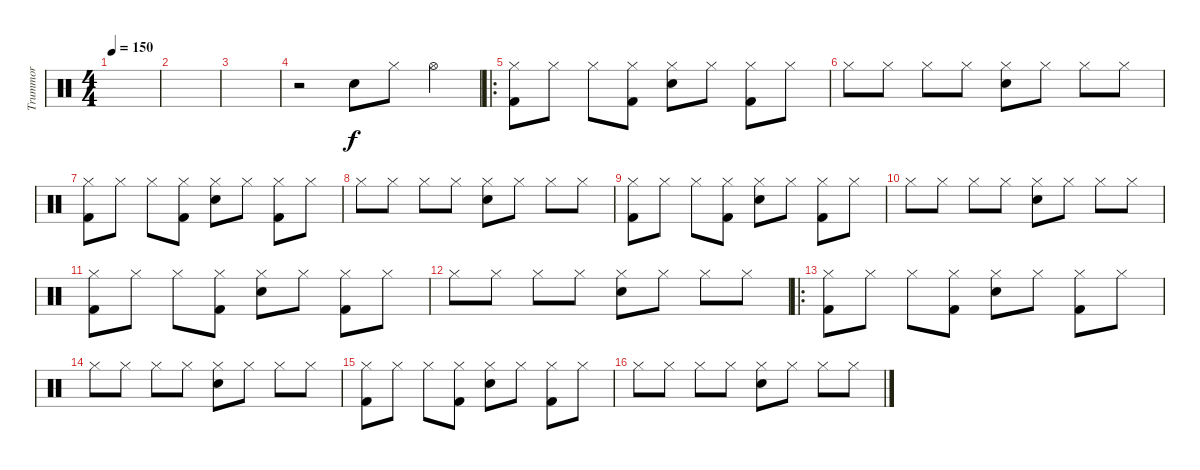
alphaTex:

\track ("Trummor" "Trummor") {instrument percussion}
\staff {score}
\articulation defaults
\ts (4 4)
\tempo 150
\clef neutral
\ks c
|
|
|
r.2 "Snare (hit) 2".8 "Hi-Hat (closed)".8 "Hi-Hat (open)".4 |
\ro
("Hi-Hat (closed)" "Kick (hit) 2").8 "Hi-Hat (closed)".8 "Hi-Hat (closed)".8 ("Hi-Hat (closed)" "Kick (hit) 2").8 ("Hi-Hat (closed)" "Snare (hit) 2").8 "Hi-Hat (closed)".8 ("Hi-Hat (closed)" "Kick (hit) 2").8 "Hi-Hat (closed)".8 |
"Hi-Hat (closed)".8 "Hi-Hat (closed)".8 "Hi-Hat (closed)".8 "Hi-Hat (closed)".8 ("Hi-Hat (closed)" "Snare (hit) 2").8 "Hi-Hat (closed)".8 "Hi-Hat (closed)".8 "Hi-Hat (closed)".8 |
("Hi-Hat (closed)" "Kick (hit) 2").8 "Hi-Hat (closed)".8 "Hi-Hat (closed)".8 ("Hi-Hat (closed)" "Kick (hit) 2").8 ("Hi-Hat (closed)" "Snare (hit) 2").8 "Hi-Hat (closed)".8 ("Hi-Hat (closed)" "Kick (hit) 2").8 "Hi-Hat (closed)".8 |
"Hi-Hat (closed)".8 "Hi-Hat (closed)".8 "Hi-Hat (closed)".8 "Hi-Hat (closed)".8 ("Hi-Hat (closed)" "Snare (hit) 2").8 "Hi-Hat (closed)".8 "Hi-Hat (closed)".8 "Hi-Hat (closed)".8 |
("Hi-Hat (closed)" "Kick (hit) 2").8 "Hi-Hat (closed)".8 "Hi-Hat (closed)".8 ("Hi-Hat (closed)" "Kick (hit) 2").8 ("Hi-Hat (closed)" "Snare (hit) 2").8 "Hi-Hat (closed)".8 ("Hi-Hat (closed)" "Kick (hit) 2").8 "Hi-Hat (closed)".8 |
"Hi-Hat (closed)".8 "Hi-Hat (closed)".8 "Hi-Hat (closed)".8 "Hi-Hat (closed)".8 ("Hi-Hat (closed)" "Snare (hit) 2").8 "Hi-Hat (closed)".8 "Hi-Hat (closed)".8 "Hi-Hat (closed)".8 |
("Hi-Hat (closed)" "Kick (hit) 2").8 "Hi-Hat (closed)".8 "Hi-Hat (closed)".8 ("Hi-Hat (closed)" "Kick (hit) 2").8 ("Hi-Hat (closed)" "Snare (hit) 2").8 "Hi-Hat (closed)".8 ("Hi-Hat (closed)" "Kick (hit) 2").8 "Hi-Hat (closed)".8 |
"Hi-Hat (closed)".8 "Hi-Hat (closed)".8 "Hi-Hat (closed)".8 "Hi-Hat (closed)".8 ("Hi-Hat (closed)" "Snare (hit) 2").8 "Hi-Hat (closed)".8 "Hi-Hat (closed)".8 "Hi-Hat (closed)".8 |
\ro
("Hi-Hat (closed)" "Kick (hit) 2").8 "Hi-Hat (closed)".8 "Hi-Hat (closed)".8 ("Hi-Hat (closed)" "Kick (hit) 2").8 ("Hi-Hat (closed)" "Snare (hit) 2").8 "Hi-Hat (closed)".8 ("Hi-Hat (closed)" "Kick (hit) 2").8 "Hi-Hat (closed)".8 |
"Hi-Hat (closed)".8 "Hi-Hat (closed)".8 "Hi-Hat (closed)".8 "Hi-Hat (closed)".8 ("Hi-Hat (closed)" "Snare (hit) 2").8 "Hi-Hat (closed)".8 "Hi-Hat (closed)".8 "Hi-Hat (closed)".8 |
("Hi-Hat (closed)" "Kick (hit) 2").8 "Hi-Hat (closed)".8 "Hi-Hat (closed)".8 ("Hi-Hat (closed)" "Kick (hit) 2").8 ("Hi-Hat (closed)" "Snare (hit) 2").8 "Hi-Hat (closed)".8 ("Hi-Hat (closed)" "Kick (hit) 2").8 "Hi-Hat (closed)".8 |
"Hi-Hat (closed)".8 "Hi-Hat (closed)".8 "Hi-Hat (closed)".8 "Hi-Hat (closed)".8 ("Hi-Hat (closed)" "Snare (hit) 2").8 "Hi-Hat (closed)".8 "Hi-Hat (closed)".8 "Hi-Hat (closed)".8
